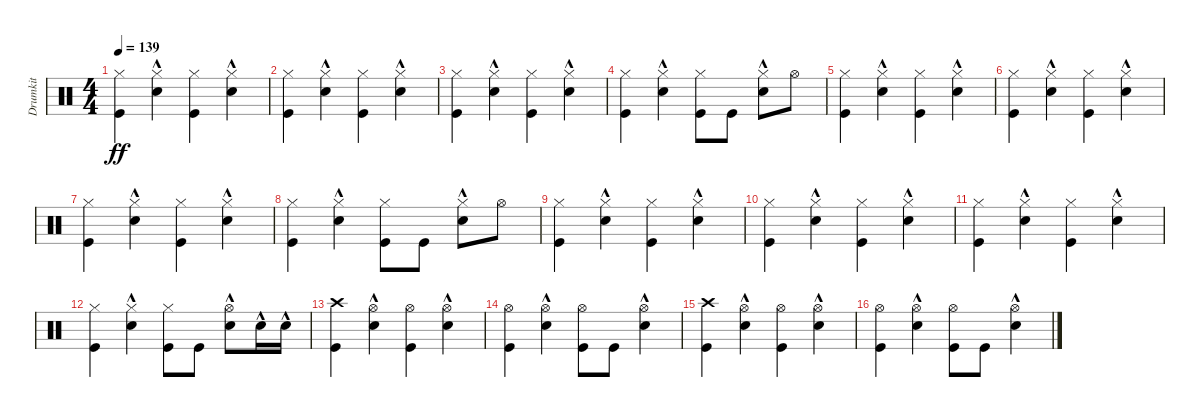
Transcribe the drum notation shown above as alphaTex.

\track ("Drumkit" "Drumkit") {instrument percussion}
\staff {score}
\articulation defaults
\ts (4 4)
\tempo 139
\clef neutral
\ks c
("Kick (hit)" "Hi-Hat (closed)").4{dy ff} ("Snare (hit) 2"{hac} "Hi-Hat (closed)").4 ("Kick (hit)" "Hi-Hat (closed)").4 ("Snare (hit) 2"{hac} "Hi-Hat (closed)").4 |
("Hi-Hat (closed)" "Kick (hit)").4 ("Hi-Hat (closed)" "Snare (hit) 2"{hac}).4 ("Hi-Hat (closed)" "Kick (hit)").4 ("Hi-Hat (closed)" "Snare (hit) 2"{hac}).4 |
("Hi-Hat (closed)" "Kick (hit)").4 ("Hi-Hat (closed)" "Snare (hit) 2"{hac}).4 ("Hi-Hat (closed)" "Kick (hit)").4 ("Hi-Hat (closed)" "Snare (hit) 2"{hac}).4 |
("Hi-Hat (closed)" "Kick (hit)").4 ("Snare (hit) 2"{hac} "Hi-Hat (closed)").4 ("Hi-Hat (closed)" "Kick (hit)").8 "Kick (hit)".8 ("Snare (hit) 2"{hac} "Hi-Hat (closed)").8 "Hi-Hat (open)".8 |
("Kick (hit)" "Hi-Hat (closed)").4 ("Snare (hit) 2"{hac} "Hi-Hat (closed)").4 ("Kick (hit)" "Hi-Hat (closed)").4 ("Snare (hit) 2"{hac} "Hi-Hat (closed)").4 |
("Hi-Hat (closed)" "Kick (hit)").4 ("Hi-Hat (closed)" "Snare (hit) 2"{hac}).4 ("Hi-Hat (closed)" "Kick (hit)").4 ("Hi-Hat (closed)" "Snare (hit) 2"{hac}).4 |
("Hi-Hat (closed)" "Kick (hit)").4 ("Hi-Hat (closed)" "Snare (hit) 2"{hac}).4 ("Hi-Hat (closed)" "Kick (hit)").4 ("Hi-Hat (closed)" "Snare (hit) 2"{hac}).4 |
("Hi-Hat (closed)" "Kick (hit)").4 ("Snare (hit) 2"{hac} "Hi-Hat (closed)").4 ("Hi-Hat (closed)" "Kick (hit)").8 "Kick (hit)".8 ("Snare (hit) 2"{hac} "Hi-Hat (closed)").8 "Hi-Hat (open)".8 |
("Kick (hit)" "Hi-Hat (closed)").4 ("Snare (hit) 2"{hac} "Hi-Hat (closed)").4 ("Kick (hit)" "Hi-Hat (closed)").4 ("Snare (hit) 2"{hac} "Hi-Hat (closed)").4 |
("Hi-Hat (closed)" "Kick (hit)").4 ("Hi-Hat (closed)" "Snare (hit) 2"{hac}).4 ("Hi-Hat (closed)" "Kick (hit)").4 ("Hi-Hat (closed)" "Snare (hit) 2"{hac}).4 |
("Hi-Hat (closed)" "Kick (hit)").4 ("Hi-Hat (closed)" "Snare (hit) 2"{hac}).4 ("Hi-Hat (closed)" "Kick (hit)").4 ("Hi-Hat (closed)" "Snare (hit) 2"{hac}).4 |
("Hi-Hat (closed)" "Kick (hit)").4 ("Snare (hit) 2"{hac} "Hi-Hat (closed)").4 ("Hi-Hat (closed)" "Kick (hit)").8 "Kick (hit)".8 ("Snare (hit) 2"{hac} "Hi-Hat (open)").8 "Snare (hit) 2"{hac}.16 "Snare (hit) 2"{hac}.16 |
("Kick (hit)" "Crash high (hit)").4 ("Snare (hit) 2"{hac} "Hi-Hat (open)").4 ("Kick (hit)" "Hi-Hat (open)").4 ("Snare (hit) 2"{hac} "Hi-Hat (open)").4 |
("Hi-Hat (open)" "Kick (hit)").4 ("Hi-Hat (open)" "Snare (hit) 2"{hac}).4 ("Hi-Hat (open)" "Kick (hit)").8 "Kick (hit)".8 ("Hi-Hat (open)" "Snare (hit) 2"{hac}).4 |
("Kick (hit)" "Crash high (hit)").4 ("Hi-Hat (open)" "Snare (hit) 2"{hac}).4 ("Hi-Hat (open)" "Kick (hit)").4 ("Hi-Hat (open)" "Snare (hit) 2"{hac}).4 |
("Hi-Hat (open)" "Kick (hit)").4 ("Snare (hit) 2"{hac} "Hi-Hat (open)").4 ("Hi-Hat (open)" "Kick (hit)").8 "Kick (hit)".8 ("Snare (hit) 2"{hac} "Hi-Hat (open)").4
